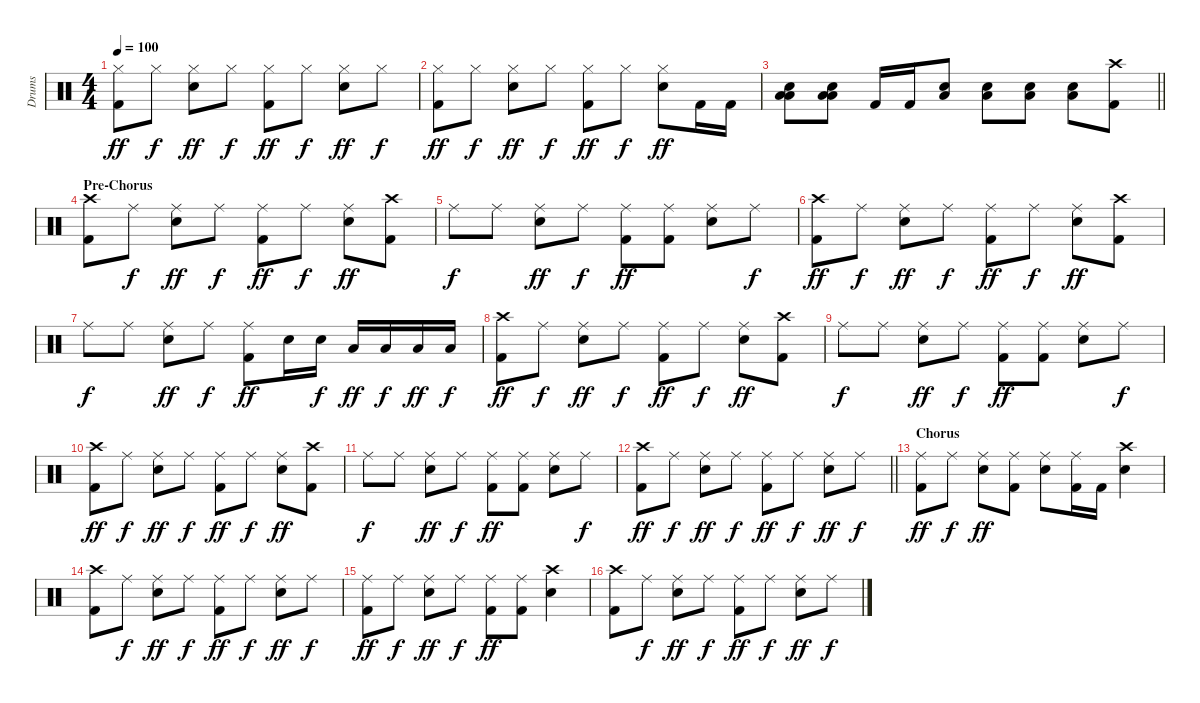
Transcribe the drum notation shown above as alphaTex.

\track ("Drums" "Drums") {instrument percussion}
\staff {score}
\articulation defaults
\ts (4 4)
\tempo 100
\clef neutral
\ks c
("Hi-Hat (closed)" "Kick (hit) 2").8{dy ff} "Hi-Hat (closed)".8{dy f} ("Hi-Hat (closed)" "Snare (hit) 2").8{dy ff} "Hi-Hat (closed)".8{dy f} ("Hi-Hat (closed)" "Kick (hit) 2").8{dy ff} "Hi-Hat (closed)".8{dy f} ("Hi-Hat (closed)" "Snare (hit) 2").8{dy ff} "Hi-Hat (closed)".8{dy f} |
("Hi-Hat (closed)" "Kick (hit) 2").8{dy ff} "Hi-Hat (closed)".8{dy f} ("Hi-Hat (closed)" "Snare (hit) 2").8{dy ff} "Hi-Hat (closed)".8{dy f} ("Hi-Hat (closed)" "Kick (hit) 2").8{dy ff} "Hi-Hat (closed)".8{dy f} ("Hi-Hat (closed)" "Snare (hit) 2").8{dy ff} "Kick (hit) 2".16 "Kick (hit) 2".16 |
\barLineRight lightlight
("Low Tom (hit)" "Snare (hit) 2" "Low Floor Tom (hit)").8 ("Low Tom (hit)" "Snare (hit) 2" "Low Floor Tom (hit)").8 "Kick (hit) 2".16 "Kick (hit) 2".16 ("Snare (hit) 2" "Low Floor Tom (hit)").8 ("Snare (hit) 2" "Low Floor Tom (hit)").8 ("Snare (hit) 2" "Low Floor Tom (hit)").8 ("Snare (hit) 2" "Low Floor Tom (hit)").8 ("Crash high (hit)" "Kick (hit) 2").8 |
\section ("" "Pre-Chorus")
("Crash high (hit)" "Kick (hit) 2").8 "Ride (middle)".8{dy f} ("Ride (middle)" "Snare (hit) 2").8{dy ff} "Ride (middle)".8{dy f} ("Ride (middle)" "Kick (hit) 2").8{dy ff} "Ride (middle)".8{dy f} ("Ride (middle)" "Snare (hit) 2").8{dy ff} ("Crash high (hit)" "Kick (hit) 2").8 |
"Ride (middle)".8{dy f} "Ride (middle)".8 ("Ride (middle)" "Snare (hit) 2").8{dy ff} "Ride (middle)".8{dy f} ("Ride (middle)" "Kick (hit) 2").8{dy ff} ("Ride (middle)" "Kick (hit) 2").8 ("Ride (middle)" "Snare (hit) 2").8 "Ride (middle)".8{dy f} |
("Crash high (hit)" "Kick (hit) 2").8{dy ff} "Ride (middle)".8{dy f} ("Ride (middle)" "Snare (hit) 2").8{dy ff} "Ride (middle)".8{dy f} ("Ride (middle)" "Kick (hit) 2").8{dy ff} "Ride (middle)".8{dy f} ("Ride (middle)" "Snare (hit) 2").8{dy ff} ("Crash high (hit)" "Kick (hit) 2").8 |
"Ride (middle)".8{dy f} "Ride (middle)".8 ("Ride (middle)" "Snare (hit) 2").8{dy ff} "Ride (middle)".8{dy f} ("Ride (middle)" "Kick (hit) 2").8{dy ff} "Snare (hit) 2".16 "Snare (hit) 2".16{dy f} "Low Tom (hit)".16{dy ff} "Low Tom (hit)".16{dy f} "Low Floor Tom (hit)".16{dy ff} "Low Floor Tom (hit)".16{dy f} |
("Crash high (hit)" "Kick (hit) 2").8{dy ff} "Ride (middle)".8{dy f} ("Ride (middle)" "Snare (hit) 2").8{dy ff} "Ride (middle)".8{dy f} ("Ride (middle)" "Kick (hit) 2").8{dy ff} "Ride (middle)".8{dy f} ("Ride (middle)" "Snare (hit) 2").8{dy ff} ("Crash high (hit)" "Kick (hit) 2").8 |
"Ride (middle)".8{dy f} "Ride (middle)".8 ("Ride (middle)" "Snare (hit) 2").8{dy ff} "Ride (middle)".8{dy f} ("Ride (middle)" "Kick (hit) 2").8{dy ff} ("Ride (middle)" "Kick (hit) 2").8 ("Ride (middle)" "Snare (hit) 2").8 "Ride (middle)".8{dy f} |
("Crash high (hit)" "Kick (hit) 2").8{dy ff} "Ride (middle)".8{dy f} ("Ride (middle)" "Snare (hit) 2").8{dy ff} "Ride (middle)".8{dy f} ("Ride (middle)" "Kick (hit) 2").8{dy ff} "Ride (middle)".8{dy f} ("Ride (middle)" "Snare (hit) 2").8{dy ff} ("Crash high (hit)" "Kick (hit) 2").8 |
"Ride (middle)".8{dy f} "Ride (middle)".8 ("Ride (middle)" "Snare (hit) 2").8{dy ff} "Ride (middle)".8{dy f} ("Ride (middle)" "Kick (hit) 2").8{dy ff} ("Ride (middle)" "Kick (hit) 2").8 ("Ride (middle)" "Snare (hit) 2").8 "Ride (middle)".8{dy f} |
\barLineRight lightlight
("Crash high (hit)" "Kick (hit) 2").8{dy ff} "Ride (middle)".8{dy f} ("Ride (middle)" "Snare (hit) 2").8{dy ff} "Ride (middle)".8{dy f} ("Ride (middle)" "Kick (hit) 2").8{dy ff} "Ride (middle)".8{dy f} ("Ride (middle)" "Snare (hit) 2").8{dy ff} "Ride (middle)".8{dy f} |
\section ("" "Chorus")
("Ride (middle)" "Kick (hit) 2").8{dy ff} "Ride (middle)".8{dy f} ("Ride (middle)" "Snare (hit) 2").8{dy ff} ("Ride (middle)" "Kick (hit) 2").8 ("Ride (middle)" "Snare (hit) 2").8 ("Ride (middle)" "Kick (hit) 2").16 "Kick (hit) 2".16 ("Crash high (hit)" "Snare (hit) 2").4 |
("Crash high (hit)" "Kick (hit) 2").8 "Ride (middle)".8{dy f} ("Ride (middle)" "Snare (hit) 2").8{dy ff} "Ride (middle)".8{dy f} ("Ride (middle)" "Kick (hit) 2").8{dy ff} "Ride (middle)".8{dy f} ("Ride (middle)" "Snare (hit) 2").8{dy ff} "Ride (middle)".8{dy f} |
("Ride (middle)" "Kick (hit) 2").8{dy ff} "Ride (middle)".8{dy f} ("Ride (middle)" "Snare (hit) 2").8{dy ff} "Ride (middle)".8{dy f} ("Ride (middle)" "Kick (hit) 2").8{dy ff} ("Ride (middle)" "Kick (hit) 2").8 ("Crash high (hit)" "Snare (hit) 2").4 |
("Crash high (hit)" "Kick (hit) 2").8 "Ride (middle)".8{dy f} ("Ride (middle)" "Snare (hit) 2").8{dy ff} "Ride (middle)".8{dy f} ("Ride (middle)" "Kick (hit) 2").8{dy ff} "Ride (middle)".8{dy f} ("Ride (middle)" "Snare (hit) 2").8{dy ff} "Ride (middle)".8{dy f}
